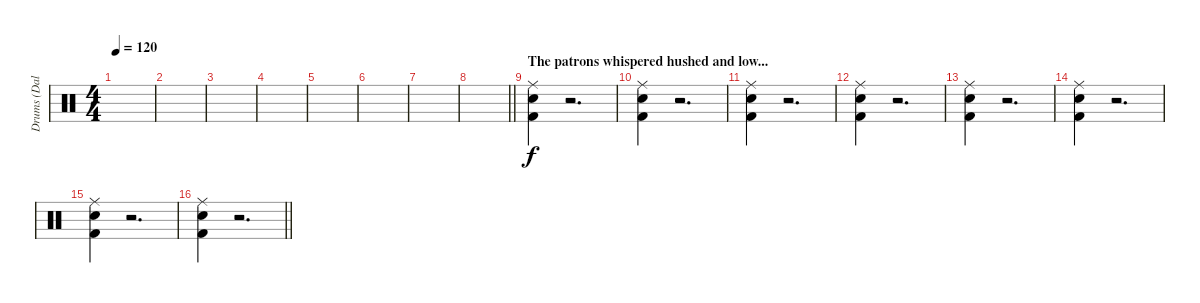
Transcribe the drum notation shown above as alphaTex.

\track ("Drums (Dalton Black)" "Drums (Dal") {instrument percussion}
\staff {score}
\articulation defaults
\ts (4 4)
\tempo 120
\clef neutral
\ks c
|
|
|
|
|
|
|
\barLineRight lightlight
|
\section ("" "The patrons whispered hushed and low...")
("Ride (middle)" "Electric Snare (hit)" "Kick (hit) 2").4 r.2{d} |
("Ride (middle)" "Electric Snare (hit)" "Kick (hit) 2").4 r.2{d} |
("Ride (middle)" "Electric Snare (hit)" "Kick (hit) 2").4 r.2{d} |
("Ride (middle)" "Electric Snare (hit)" "Kick (hit) 2").4 r.2{d} |
("Ride (middle)" "Electric Snare (hit)" "Kick (hit) 2").4 r.2{d} |
("Ride (middle)" "Electric Snare (hit)" "Kick (hit) 2").4 r.2{d} |
("Ride (middle)" "Electric Snare (hit)" "Kick (hit) 2").4 r.2{d} |
\barLineRight lightlight
("Ride (middle)" "Electric Snare (hit)" "Kick (hit) 2").4 r.2{d}
